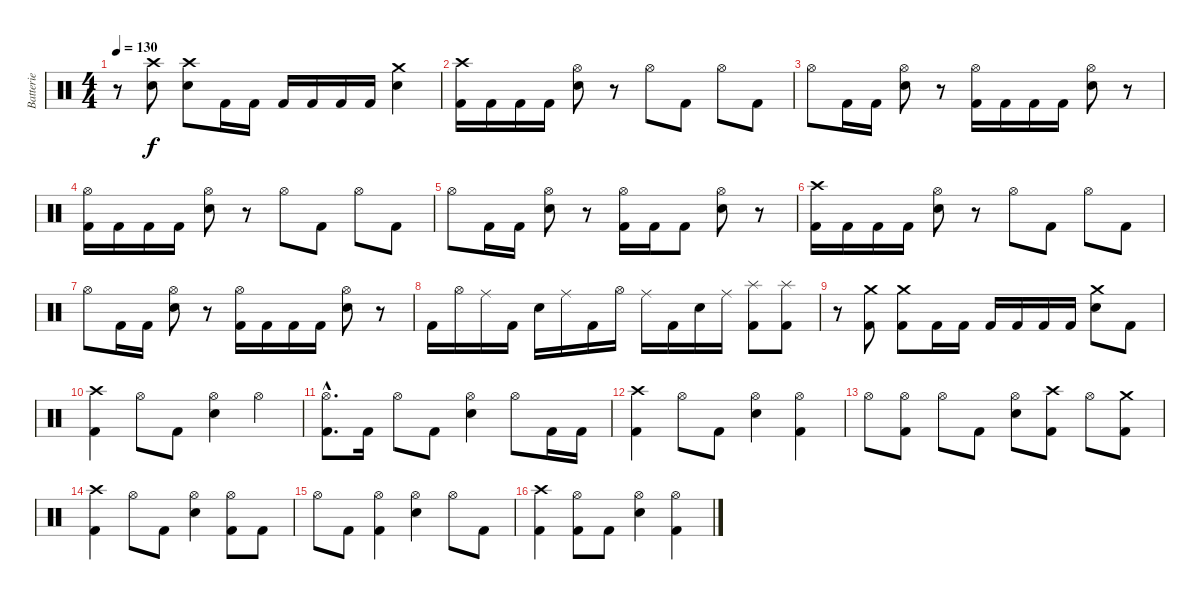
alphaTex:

\track ("Batterie" "Batterie") {instrument percussion}
\staff {score}
\articulation defaults
\ts (4 4)
\tempo 130
\clef neutral
\ks c
r.8{dy f} ("Crash high (hit)" "Snare (hit) 2").8 ("Crash high (hit)" "Snare (hit) 2").8 "Kick (hit) 2".16 "Kick (hit) 2".16 "Kick (hit) 2".16 "Kick (hit) 2".16 "Kick (hit) 2".16 "Kick (hit) 2".16 ("Crash medium (hit)" "Snare (hit) 2").4 |
("Crash high (hit)" "Kick (hit) 2").16 "Kick (hit) 2".16 "Kick (hit) 2".16 "Kick (hit) 2".16 ("Hi-Hat (open)" "Snare (hit) 2").8 r.8 "Hi-Hat (open)".8 "Kick (hit) 2".8 "Hi-Hat (open)".8 "Kick (hit) 2".8 |
"Hi-Hat (open)".8 "Kick (hit) 2".16 "Kick (hit) 2".16 ("Hi-Hat (open)" "Snare (hit) 2").8 r.8 ("Hi-Hat (open)" "Kick (hit) 2").16 "Kick (hit) 2".16 "Kick (hit) 2".16 "Kick (hit) 2".16 ("Hi-Hat (open)" "Snare (hit) 2").8 r.8 |
("Hi-Hat (open)" "Kick (hit) 2").16 "Kick (hit) 2".16 "Kick (hit) 2".16 "Kick (hit) 2".16 ("Hi-Hat (open)" "Snare (hit) 2").8 r.8 "Hi-Hat (open)".8 "Kick (hit) 2".8 "Hi-Hat (open)".8 "Kick (hit) 2".8 |
"Hi-Hat (open)".8 "Kick (hit) 2".16 "Kick (hit) 2".16 ("Hi-Hat (open)" "Snare (hit) 2").8 r.8 ("Hi-Hat (open)" "Kick (hit) 2").16 "Kick (hit) 2".16 "Kick (hit) 2".8 ("Hi-Hat (open)" "Snare (hit) 2").8 r.8 |
("Crash high (hit)" "Kick (hit) 2").16 "Kick (hit) 2".16 "Kick (hit) 2".16 "Kick (hit) 2".16 ("Hi-Hat (open)" "Snare (hit) 2").8 r.8 "Hi-Hat (open)".8 "Kick (hit) 2".8 "Hi-Hat (open)".8 "Kick (hit) 2".8 |
"Hi-Hat (open)".8 "Kick (hit) 2".16 "Kick (hit) 2".16 ("Hi-Hat (open)" "Snare (hit) 2").8 r.8 ("Hi-Hat (open)" "Kick (hit) 2").16 "Kick (hit) 2".16 "Kick (hit) 2".16 "Kick (hit) 2".16 ("Hi-Hat (open)" "Snare (hit) 2").8 r.8 |
"Kick (hit) 2".16 "Hi-Hat (open)".16 "Ride (middle)".16 "Kick (hit) 2".16 "Snare (hit) 2".16 "Ride (middle)".16 "Kick (hit) 2".16 "Hi-Hat (open)".16 "Ride (middle)".16 "Kick (hit) 2".16 "Snare (hit) 2".16 "Ride (middle)".16 ("Splash (hit)" "Kick (hit) 2").8 ("Splash (hit)" "Kick (hit) 2").8 |
r.8 ("Crash medium (hit)" "Kick (hit) 2").8 ("Crash medium (hit)" "Kick (hit) 2").8 "Kick (hit) 2".16 "Kick (hit) 2".16 "Kick (hit) 2".16 "Kick (hit) 2".16 "Kick (hit) 2".16 "Kick (hit) 2".16 ("Crash medium (hit)" "Snare (hit) 2").8 "Kick (hit) 2".8 |
("Crash high (hit)" "Kick (hit) 2").4 "Hi-Hat (open)".8 "Kick (hit) 2".8 ("Hi-Hat (open)" "Snare (hit) 2").4 "Hi-Hat (open)".4 |
("Hi-Hat (open)"{hac} "Kick (hit) 2"{hac}).8{d} "Kick (hit) 2".16 "Hi-Hat (open)".8 "Kick (hit) 2".8 ("Hi-Hat (open)" "Snare (hit) 2").4 "Hi-Hat (open)".8 "Kick (hit) 2".16 "Kick (hit) 2".16 |
("Crash high (hit)" "Kick (hit) 2").4 "Hi-Hat (open)".8 "Kick (hit) 2".8 ("Hi-Hat (open)" "Snare (hit) 2").4 ("Hi-Hat (open)" "Kick (hit) 2").4 |
"Hi-Hat (open)".8 ("Hi-Hat (open)" "Kick (hit) 2").8 "Hi-Hat (open)".8 "Kick (hit) 2".8 ("Hi-Hat (open)" "Snare (hit) 2").8 ("Crash high (hit)" "Kick (hit) 2").8 "Hi-Hat (open)".8 ("Crash medium (hit)" "Kick (hit) 2").8 |
("Crash high (hit)" "Kick (hit) 2").4 "Hi-Hat (open)".8 "Kick (hit) 2".8 ("Hi-Hat (open)" "Snare (hit) 2").4 ("Hi-Hat (open)" "Kick (hit) 2").8 "Kick (hit) 2".8 |
"Hi-Hat (open)".8 "Kick (hit) 2".8 ("Hi-Hat (open)" "Kick (hit) 2").4 ("Hi-Hat (open)" "Snare (hit) 2").4 "Hi-Hat (open)".8 "Kick (hit) 2".8 |
("Crash high (hit)" "Kick (hit) 2").4 ("Hi-Hat (open)" "Kick (hit) 2").8 "Kick (hit) 2".8 ("Hi-Hat (open)" "Snare (hit) 2").4 ("Hi-Hat (open)" "Kick (hit) 2").4
